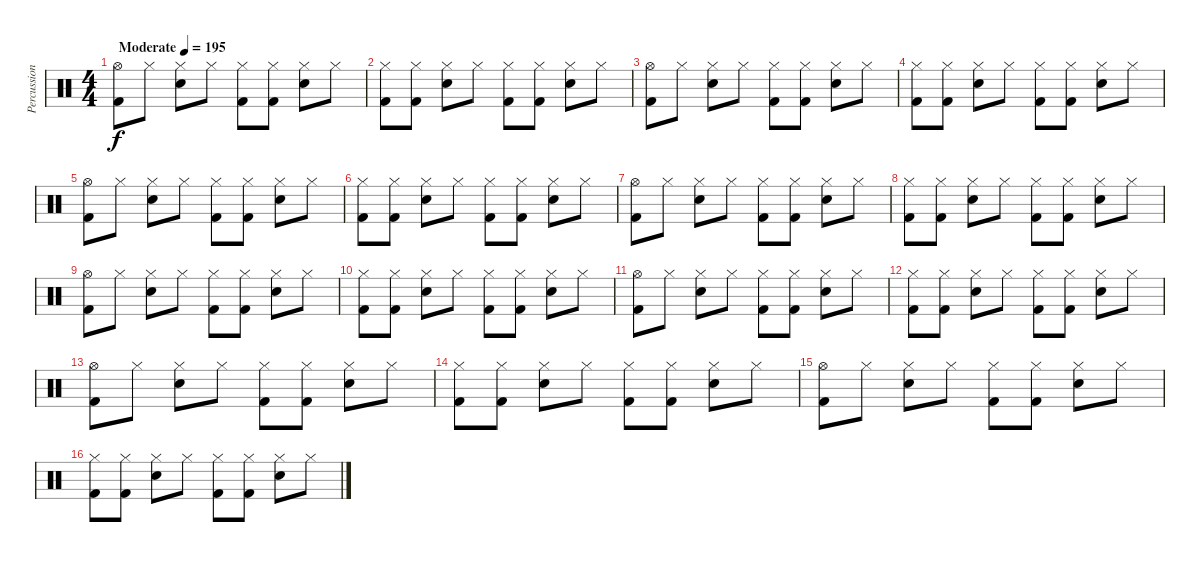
\track ("Percussion" "Percussion") {instrument percussion}
\staff {score}
\articulation defaults
\ts (4 4)
\tempo (195 "Moderate")
\clef neutral
\ks c
("Hi-Hat (open)" "Kick (hit) 2").8{dy f} "Hi-Hat (closed)".8 ("Hi-Hat (closed)" "Snare (hit) 2").8 "Hi-Hat (closed)".8 ("Hi-Hat (closed)" "Kick (hit) 2").8 ("Hi-Hat (closed)" "Kick (hit) 2").8 ("Hi-Hat (closed)" "Snare (hit) 2").8 "Hi-Hat (closed)".8 |
("Hi-Hat (closed)" "Kick (hit) 2").8 ("Hi-Hat (closed)" "Kick (hit) 2").8 ("Hi-Hat (closed)" "Snare (hit) 2").8 "Hi-Hat (closed)".8 ("Hi-Hat (closed)" "Kick (hit) 2").8 ("Hi-Hat (closed)" "Kick (hit) 2").8 ("Hi-Hat (closed)" "Snare (hit) 2").8 "Hi-Hat (closed)".8 |
("Hi-Hat (open)" "Kick (hit) 2").8 "Hi-Hat (closed)".8 ("Hi-Hat (closed)" "Snare (hit) 2").8 "Hi-Hat (closed)".8 ("Hi-Hat (closed)" "Kick (hit) 2").8 ("Hi-Hat (closed)" "Kick (hit) 2").8 ("Hi-Hat (closed)" "Snare (hit) 2").8 "Hi-Hat (closed)".8 |
("Hi-Hat (closed)" "Kick (hit) 2").8 ("Hi-Hat (closed)" "Kick (hit) 2").8 ("Hi-Hat (closed)" "Snare (hit) 2").8 "Hi-Hat (closed)".8 ("Hi-Hat (closed)" "Kick (hit) 2").8 ("Hi-Hat (closed)" "Kick (hit) 2").8 ("Hi-Hat (closed)" "Snare (hit) 2").8 "Hi-Hat (closed)".8 |
("Hi-Hat (open)" "Kick (hit) 2").8 "Hi-Hat (closed)".8 ("Hi-Hat (closed)" "Snare (hit) 2").8 "Hi-Hat (closed)".8 ("Hi-Hat (closed)" "Kick (hit) 2").8 ("Hi-Hat (closed)" "Kick (hit) 2").8 ("Hi-Hat (closed)" "Snare (hit) 2").8 "Hi-Hat (closed)".8 |
("Hi-Hat (closed)" "Kick (hit) 2").8 ("Hi-Hat (closed)" "Kick (hit) 2").8 ("Hi-Hat (closed)" "Snare (hit) 2").8 "Hi-Hat (closed)".8 ("Hi-Hat (closed)" "Kick (hit) 2").8 ("Hi-Hat (closed)" "Kick (hit) 2").8 ("Hi-Hat (closed)" "Snare (hit) 2").8 "Hi-Hat (closed)".8 |
("Hi-Hat (open)" "Kick (hit) 2").8 "Hi-Hat (closed)".8 ("Hi-Hat (closed)" "Snare (hit) 2").8 "Hi-Hat (closed)".8 ("Hi-Hat (closed)" "Kick (hit) 2").8 ("Hi-Hat (closed)" "Kick (hit) 2").8 ("Hi-Hat (closed)" "Snare (hit) 2").8 "Hi-Hat (closed)".8 |
("Hi-Hat (closed)" "Kick (hit) 2").8 ("Hi-Hat (closed)" "Kick (hit) 2").8 ("Hi-Hat (closed)" "Snare (hit) 2").8 "Hi-Hat (closed)".8 ("Hi-Hat (closed)" "Kick (hit) 2").8 ("Hi-Hat (closed)" "Kick (hit) 2").8 ("Hi-Hat (closed)" "Snare (hit) 2").8 "Hi-Hat (closed)".8 |
("Hi-Hat (open)" "Kick (hit) 2").8 "Hi-Hat (closed)".8 ("Hi-Hat (closed)" "Snare (hit) 2").8 "Hi-Hat (closed)".8 ("Hi-Hat (closed)" "Kick (hit) 2").8 ("Hi-Hat (closed)" "Kick (hit) 2").8 ("Hi-Hat (closed)" "Snare (hit) 2").8 "Hi-Hat (closed)".8 |
("Hi-Hat (closed)" "Kick (hit) 2").8 ("Hi-Hat (closed)" "Kick (hit) 2").8 ("Hi-Hat (closed)" "Snare (hit) 2").8 "Hi-Hat (closed)".8 ("Hi-Hat (closed)" "Kick (hit) 2").8 ("Hi-Hat (closed)" "Kick (hit) 2").8 ("Hi-Hat (closed)" "Snare (hit) 2").8 "Hi-Hat (closed)".8 |
("Hi-Hat (open)" "Kick (hit) 2").8 "Hi-Hat (closed)".8 ("Hi-Hat (closed)" "Snare (hit) 2").8 "Hi-Hat (closed)".8 ("Hi-Hat (closed)" "Kick (hit) 2").8 ("Hi-Hat (closed)" "Kick (hit) 2").8 ("Hi-Hat (closed)" "Snare (hit) 2").8 "Hi-Hat (closed)".8 |
("Hi-Hat (closed)" "Kick (hit) 2").8 ("Hi-Hat (closed)" "Kick (hit) 2").8 ("Hi-Hat (closed)" "Snare (hit) 2").8 "Hi-Hat (closed)".8 ("Hi-Hat (closed)" "Kick (hit) 2").8 ("Hi-Hat (closed)" "Kick (hit) 2").8 ("Hi-Hat (closed)" "Snare (hit) 2").8 "Hi-Hat (closed)".8 |
("Hi-Hat (open)" "Kick (hit) 2").8 "Hi-Hat (closed)".8 ("Hi-Hat (closed)" "Snare (hit) 2").8 "Hi-Hat (closed)".8 ("Hi-Hat (closed)" "Kick (hit) 2").8 ("Hi-Hat (closed)" "Kick (hit) 2").8 ("Hi-Hat (closed)" "Snare (hit) 2").8 "Hi-Hat (closed)".8 |
("Hi-Hat (closed)" "Kick (hit) 2").8 ("Hi-Hat (closed)" "Kick (hit) 2").8 ("Hi-Hat (closed)" "Snare (hit) 2").8 "Hi-Hat (closed)".8 ("Hi-Hat (closed)" "Kick (hit) 2").8 ("Hi-Hat (closed)" "Kick (hit) 2").8 ("Hi-Hat (closed)" "Snare (hit) 2").8 "Hi-Hat (closed)".8 |
("Hi-Hat (open)" "Kick (hit) 2").8 "Hi-Hat (closed)".8 ("Hi-Hat (closed)" "Snare (hit) 2").8 "Hi-Hat (closed)".8 ("Hi-Hat (closed)" "Kick (hit) 2").8 ("Hi-Hat (closed)" "Kick (hit) 2").8 ("Hi-Hat (closed)" "Snare (hit) 2").8 "Hi-Hat (closed)".8 |
("Hi-Hat (closed)" "Kick (hit) 2").8 ("Hi-Hat (closed)" "Kick (hit) 2").8 ("Hi-Hat (closed)" "Snare (hit) 2").8 "Hi-Hat (closed)".8 ("Hi-Hat (closed)" "Kick (hit) 2").8 ("Hi-Hat (closed)" "Kick (hit) 2").8 ("Hi-Hat (closed)" "Snare (hit) 2").8 "Hi-Hat (closed)".8
